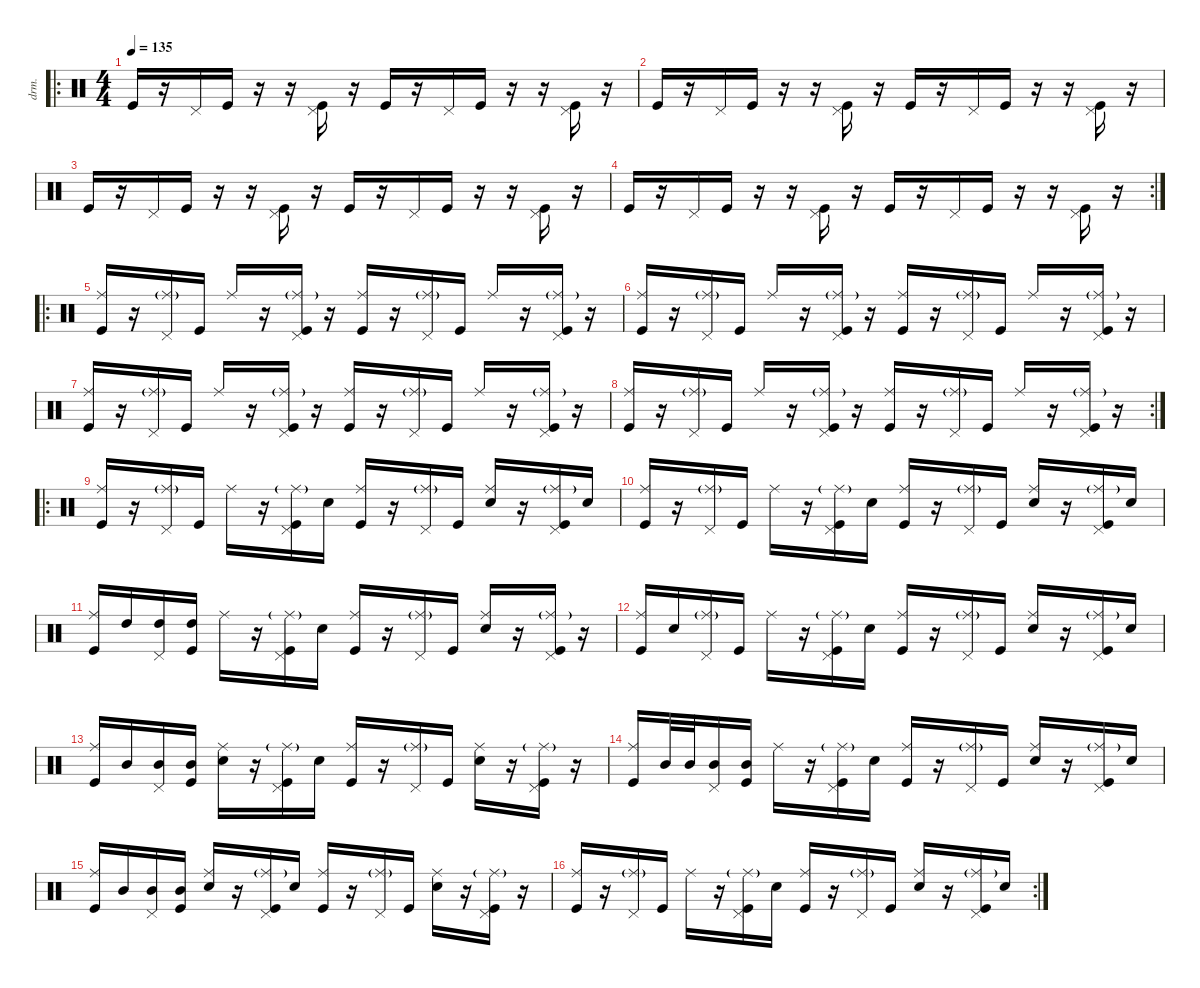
\defaultSystemsLayout 4
\hideDynamics
\bracketExtendMode nobrackets
\track ("Drumkit" "drm.") {instrument percussion}
\staff {score}
\articulation defaults
\ro
\ts (4 4)
\tempo 135
\clef neutral
\ks c "Kick (hit)".16{dy mf beam Up}
r.16{beam Up} "Pedal Hi-Hat (hit)".16{beam Up} "Kick (hit)".16{beam Up} r.16{beam Down} r.16{beam Down} ("Kick (hit)" "Pedal Hi-Hat (hit)").16{beam Up} r.16{beam Down} "Kick (hit)".16{beam Up} r.16{beam Up} "Pedal Hi-Hat (hit)".16{beam Up} "Kick (hit)".16{beam Up} r.16{beam Down} r.16{beam Down} ("Kick (hit)" "Pedal Hi-Hat (hit)").16{beam Up} r.16{beam Down} |
"Kick (hit)".16{beam Up} r.16{beam Up} "Pedal Hi-Hat (hit)".16{beam Up} "Kick (hit)".16{beam Up} r.16{beam Down} r.16{beam Down} ("Kick (hit)" "Pedal Hi-Hat (hit)").16{beam Up} r.16{beam Down} "Kick (hit)".16{beam Up} r.16{beam Up} "Pedal Hi-Hat (hit)".16{beam Up} "Kick (hit)".16{beam Up} r.16{beam Down} r.16{beam Down} ("Kick (hit)" "Pedal Hi-Hat (hit)").16{beam Up} r.16{beam Down} |
"Kick (hit)".16{beam Up} r.16{beam Up} "Pedal Hi-Hat (hit)".16{beam Up} "Kick (hit)".16{beam Up} r.16{beam Down} r.16{beam Down} ("Kick (hit)" "Pedal Hi-Hat (hit)").16{beam Up} r.16{beam Down} "Kick (hit)".16{beam Up} r.16{beam Up} "Pedal Hi-Hat (hit)".16{beam Up} "Kick (hit)".16{beam Up} r.16{beam Down} r.16{beam Down} ("Kick (hit)" "Pedal Hi-Hat (hit)").16{beam Up} r.16{beam Down} |
\rc 2 "Kick (hit)".16{beam Up}
r.16{beam Up} "Pedal Hi-Hat (hit)".16{beam Up} "Kick (hit)".16{beam Up} r.16{beam Down} r.16{beam Down} ("Kick (hit)" "Pedal Hi-Hat (hit)").16{beam Up} r.16{beam Down} "Kick (hit)".16{beam Up} r.16{beam Up} "Pedal Hi-Hat (hit)".16{beam Up} "Kick (hit)".16{beam Up} r.16{beam Down} r.16{beam Down} ("Kick (hit)" "Pedal Hi-Hat (hit)").16{beam Up} r.16{beam Down} |
\ro
("Kick (hit)" "Ride (middle)").16{beam Up} r.16{beam Up} ("Pedal Hi-Hat (hit)" "Ride (middle)"{g}).16{beam Up} "Kick (hit)".16{beam Up} "Ride (middle)".16{beam Up} r.16{beam Up} ("Kick (hit)" "Pedal Hi-Hat (hit)" "Ride (middle)"{g}).16{beam Up} r.16{beam Down} ("Kick (hit)" "Ride (middle)").16{beam Up} r.16{beam Up} ("Pedal Hi-Hat (hit)" "Ride (middle)"{g}).16{beam Up} "Kick (hit)".16{beam Up} "Ride (middle)".16{beam Up} r.16{beam Up} ("Kick (hit)" "Pedal Hi-Hat (hit)" "Ride (middle)"{g}).16{beam Up} r.16{beam Down} |
("Kick (hit)" "Ride (middle)").16{beam Up} r.16{beam Up} ("Pedal Hi-Hat (hit)" "Ride (middle)"{g}).16{beam Up} "Kick (hit)".16{beam Up} "Ride (middle)".16{beam Up} r.16{beam Up} ("Kick (hit)" "Pedal Hi-Hat (hit)" "Ride (middle)"{g}).16{beam Up} r.16{beam Down} ("Kick (hit)" "Ride (middle)").16{beam Up} r.16{beam Up} ("Pedal Hi-Hat (hit)" "Ride (middle)"{g}).16{beam Up} "Kick (hit)".16{beam Up} "Ride (middle)".16{beam Up} r.16{beam Up} ("Kick (hit)" "Pedal Hi-Hat (hit)" "Ride (middle)"{g}).16{beam Up} r.16{beam Down} |
("Kick (hit)" "Ride (middle)").16{beam Up} r.16{beam Up} ("Pedal Hi-Hat (hit)" "Ride (middle)"{g}).16{beam Up} "Kick (hit)".16{beam Up} "Ride (middle)".16{beam Up} r.16{beam Up} ("Kick (hit)" "Pedal Hi-Hat (hit)" "Ride (middle)"{g}).16{beam Up} r.16{beam Down} ("Kick (hit)" "Ride (middle)").16{beam Up} r.16{beam Up} ("Pedal Hi-Hat (hit)" "Ride (middle)"{g}).16{beam Up} "Kick (hit)".16{beam Up} "Ride (middle)".16{beam Up} r.16{beam Up} ("Kick (hit)" "Pedal Hi-Hat (hit)" "Ride (middle)"{g}).16{beam Up} r.16{beam Down} |
\rc 2
("Kick (hit)" "Ride (middle)").16{beam Up} r.16{beam Up} ("Pedal Hi-Hat (hit)" "Ride (middle)"{g}).16{beam Up} "Kick (hit)".16{beam Up} "Ride (middle)".16{beam Up} r.16{beam Up} ("Kick (hit)" "Pedal Hi-Hat (hit)" "Ride (middle)"{g}).16{beam Up} r.16{beam Down} ("Kick (hit)" "Ride (middle)").16{beam Up} r.16{beam Up} ("Pedal Hi-Hat (hit)" "Ride (middle)"{g}).16{beam Up} "Kick (hit)".16{beam Up} "Ride (middle)".16{beam Up} r.16{beam Up} ("Kick (hit)" "Pedal Hi-Hat (hit)" "Ride (middle)"{g}).16{beam Up} r.16{beam Down} |
\ro
("Kick (hit)" "Ride (middle)").16{beam Up} r.16{beam Up} ("Pedal Hi-Hat (hit)" "Ride (middle)"{g}).16{beam Up} "Kick (hit)".16{beam Up} "Ride (middle)".16{beam Down} r.16{beam Down} ("Kick (hit)" "Pedal Hi-Hat (hit)" "Ride (middle)"{g}).16{beam Down} "Snare (hit) 2".16{beam Down} ("Kick (hit)" "Ride (middle)").16{beam Up} r.16{beam Up} ("Pedal Hi-Hat (hit)" "Ride (middle)"{g}).16{beam Up} "Kick (hit)".16{beam Up} ("Ride (middle)" "Snare (hit) 2").16{beam Up} r.16{beam Up} ("Kick (hit)" "Pedal Hi-Hat (hit)" "Ride (middle)"{g}).16{beam Up} "Snare (hit) 2".16{beam Up} |
("Kick (hit)" "Ride (middle)").16{beam Up} r.16{beam Up} ("Pedal Hi-Hat (hit)" "Ride (middle)"{g}).16{beam Up} "Kick (hit)".16{beam Up} "Ride (middle)".16{beam Down} r.16{beam Down} ("Kick (hit)" "Pedal Hi-Hat (hit)" "Ride (middle)"{g}).16{beam Down} "Snare (hit) 2".16{beam Down} ("Kick (hit)" "Ride (middle)").16{beam Up} r.16{beam Up} ("Pedal Hi-Hat (hit)" "Ride (middle)"{g}).16{beam Up} "Kick (hit)".16{beam Up} ("Ride (middle)" "Snare (hit) 2").16{beam Up} r.16{beam Up} ("Kick (hit)" "Pedal Hi-Hat (hit)" "Ride (middle)"{g}).16{beam Up} "Snare (hit) 2".16{beam Up} |
("Kick (hit)" "Ride (middle)").16{beam Up} "High Tom (hit)".16{beam Up} ("Pedal Hi-Hat (hit)" "High Tom (hit)").16{beam Up} ("Kick (hit)" "High Tom (hit)").16{beam Up} "Ride (middle)".16{beam Down} r.16{beam Down} ("Kick (hit)" "Pedal Hi-Hat (hit)" "Ride (middle)"{g}).16{beam Down} "Snare (hit) 2".16{beam Down} ("Kick (hit)" "Ride (middle)").16{beam Up} r.16{beam Up} ("Pedal Hi-Hat (hit)" "Ride (middle)"{g}).16{beam Up} "Kick (hit)".16{beam Up} ("Ride (middle)" "Snare (hit) 2").16{beam Up} r.16{beam Up} ("Kick (hit)" "Pedal Hi-Hat (hit)" "Ride (middle)"{g}).16{beam Up} r.16{beam Down} |
("Kick (hit)" "Ride (middle)").16{beam Up} "Snare (hit) 2".16{beam Up} ("Pedal Hi-Hat (hit)" "Ride (middle)"{g}).16{beam Up} "Kick (hit)".16{beam Up} "Ride (middle)".16{beam Down} r.16{beam Down} ("Kick (hit)" "Pedal Hi-Hat (hit)" "Ride (middle)"{g}).16{beam Down} "Snare (hit) 2".16{beam Down} ("Kick (hit)" "Ride (middle)").16{beam Up} r.16{beam Up} ("Pedal Hi-Hat (hit)" "Ride (middle)"{g}).16{beam Up} "Kick (hit)".16{beam Up} ("Ride (middle)" "Snare (hit) 2").16{beam Up} r.16{beam Up} ("Kick (hit)" "Pedal Hi-Hat (hit)" "Ride (middle)"{g}).16{beam Up} "Snare (hit) 2".16{beam Up} |
("Kick (hit)" "Ride (middle)").16{beam Up} "Mid Tom (hit)".16{beam Up} ("Pedal Hi-Hat (hit)" "Mid Tom (hit)").16{beam Up} ("Kick (hit)" "Mid Tom (hit)").16{beam Up} ("Ride (middle)" "Snare (hit) 2").16{beam Down} r.16{beam Down} ("Kick (hit)" "Pedal Hi-Hat (hit)" "Ride (middle)"{g}).16{beam Down} "Snare (hit) 2".16{beam Down} ("Kick (hit)" "Ride (middle)").16{beam Up} r.16{beam Up} ("Pedal Hi-Hat (hit)" "Ride (middle)"{g}).16{beam Up} "Kick (hit)".16{beam Up} ("Ride (middle)" "Snare (hit) 2").16{beam Down} r.16{beam Down} ("Kick (hit)" "Pedal Hi-Hat (hit)" "Ride (middle)"{g}).16{beam Down} r.16{beam Down} |
("Kick (hit)" "Ride (middle)").16{beam Up} "Mid Tom (hit)".32{beam Up} "Mid Tom (hit)".32{beam Up} ("Pedal Hi-Hat (hit)" "Mid Tom (hit)").16{beam Up} ("Kick (hit)" "Mid Tom (hit)").16{beam Up} "Ride (middle)".16{beam Down} r.16{beam Down} ("Kick (hit)" "Pedal Hi-Hat (hit)" "Ride (middle)"{g}).16{beam Down} "Snare (hit) 2".16{beam Down} ("Kick (hit)" "Ride (middle)").16{beam Up} r.16{beam Up} ("Pedal Hi-Hat (hit)" "Ride (middle)"{g}).16{beam Up} "Kick (hit)".16{beam Up} ("Ride (middle)" "Snare (hit) 2").16{beam Up} r.16{beam Up} ("Kick (hit)" "Pedal Hi-Hat (hit)" "Ride (middle)"{g}).16{beam Up} "Snare (hit) 2".16{beam Up} |
("Kick (hit)" "Ride (middle)").16{beam Up} "Mid Tom (hit)".16{beam Up} ("Pedal Hi-Hat (hit)" "Mid Tom (hit)").16{beam Up} ("Kick (hit)" "Mid Tom (hit)").16{beam Up} ("Ride (middle)" "Snare (hit) 2").16{beam Up} r.16{beam Up} ("Kick (hit)" "Pedal Hi-Hat (hit)" "Ride (middle)"{g}).16{beam Up} "Snare (hit) 2".16{beam Up} ("Kick (hit)" "Ride (middle)").16{beam Up} r.16{beam Up} ("Pedal Hi-Hat (hit)" "Ride (middle)"{g}).16{beam Up} "Kick (hit)".16{beam Up} ("Ride (middle)" "Snare (hit) 2").16{beam Down} r.16{beam Down} ("Kick (hit)" "Pedal Hi-Hat (hit)" "Ride (middle)"{g}).16{beam Down} r.16{beam Down} |
\rc 2
("Kick (hit)" "Ride (middle)").16{beam Up} r.16{beam Up} ("Pedal Hi-Hat (hit)" "Ride (middle)"{g}).16{beam Up} "Kick (hit)".16{beam Up} "Ride (middle)".16{beam Down} r.16{beam Down} ("Kick (hit)" "Pedal Hi-Hat (hit)" "Ride (middle)"{g}).16{beam Down} "Snare (hit) 2".16{beam Down} ("Kick (hit)" "Ride (middle)").16{beam Up} r.16{beam Up} ("Pedal Hi-Hat (hit)" "Ride (middle)"{g}).16{beam Up} "Kick (hit)".16{beam Up} ("Ride (middle)" "Snare (hit) 2").16{beam Up} r.16{beam Up} ("Kick (hit)" "Pedal Hi-Hat (hit)" "Ride (middle)"{g}).16{beam Up} "Snare (hit) 2".16{beam Up}
